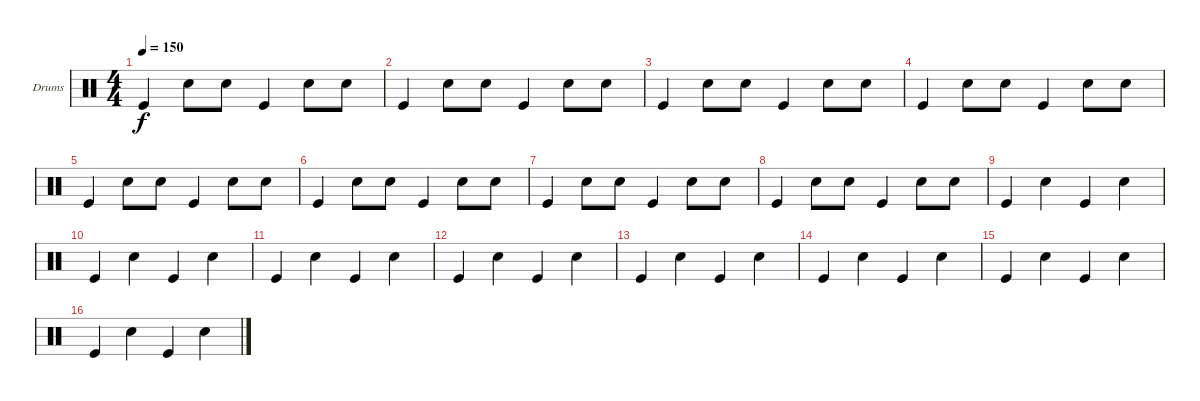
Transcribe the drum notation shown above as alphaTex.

\bracketExtendMode groupsimilarinstruments
\firstSystemTrackNameOrientation horizontal
\otherSystemsTrackNameOrientation horizontal
\track ("Drumkit" "Drums") {instrument percussion}
\staff {score}
\articulation defaults
\ts (4 4)
\tempo 150
\clef neutral
\ks c "Kick (hit)".4{dy f} "Snare (hit) 2".8 "Snare (hit) 2".8 "Kick (hit)".4 "Snare (hit) 2".8 "Snare (hit) 2".8
|
"Kick (hit)".4 "Snare (hit) 2".8 "Snare (hit) 2".8 "Kick (hit)".4 "Snare (hit) 2".8 "Snare (hit) 2".8 |
"Kick (hit)".4 "Snare (hit) 2".8 "Snare (hit) 2".8 "Kick (hit)".4 "Snare (hit) 2".8 "Snare (hit) 2".8 |
"Kick (hit)".4 "Snare (hit) 2".8 "Snare (hit) 2".8 "Kick (hit)".4 "Snare (hit) 2".8 "Snare (hit) 2".8 |
"Kick (hit)".4 "Snare (hit) 2".8 "Snare (hit) 2".8 "Kick (hit)".4 "Snare (hit) 2".8 "Snare (hit) 2".8 |
"Kick (hit)".4 "Snare (hit) 2".8 "Snare (hit) 2".8 "Kick (hit)".4 "Snare (hit) 2".8 "Snare (hit) 2".8 |
"Kick (hit)".4 "Snare (hit) 2".8 "Snare (hit) 2".8 "Kick (hit)".4 "Snare (hit) 2".8 "Snare (hit) 2".8 |
"Kick (hit)".4 "Snare (hit) 2".8 "Snare (hit) 2".8 "Kick (hit)".4 "Snare (hit) 2".8 "Snare (hit) 2".8 |
"Kick (hit)".4 "Snare (hit) 2".4 "Kick (hit)".4 "Snare (hit) 2".4 |
"Kick (hit)".4 "Snare (hit) 2".4 "Kick (hit)".4 "Snare (hit) 2".4 |
"Kick (hit)".4 "Snare (hit) 2".4 "Kick (hit)".4 "Snare (hit) 2".4 |
"Kick (hit)".4 "Snare (hit) 2".4 "Kick (hit)".4 "Snare (hit) 2".4 |
"Kick (hit)".4 "Snare (hit) 2".4 "Kick (hit)".4 "Snare (hit) 2".4 |
"Kick (hit)".4 "Snare (hit) 2".4 "Kick (hit)".4 "Snare (hit) 2".4 |
"Kick (hit)".4 "Snare (hit) 2".4 "Kick (hit)".4 "Snare (hit) 2".4 |
"Kick (hit)".4 "Snare (hit) 2".4 "Kick (hit)".4 "Snare (hit) 2".4
